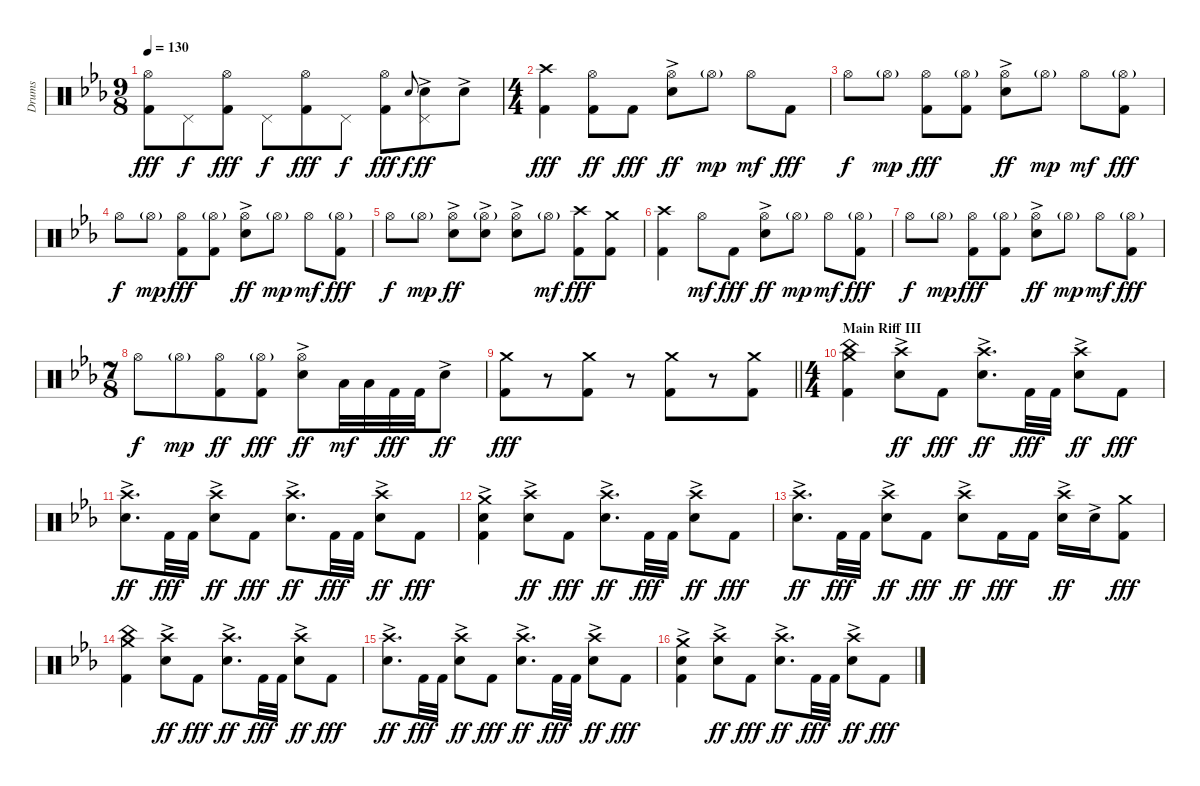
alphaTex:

\track ("Drums" "Drums") {instrument percussion}
\staff {score}
\articulation defaults
\ts (9 8)
\tempo 130
\clef neutral
\ks cminor
("Hi-Hat (open)" "Kick (hit) 2").8{dy fff} "Pedal Hi-Hat (hit)".8{dy f} ("Hi-Hat (open)" "Kick (hit) 2").8{dy fff} "Pedal Hi-Hat (hit)".8{dy f} ("Hi-Hat (open)" "Kick (hit) 2").8{dy fff} "Pedal Hi-Hat (hit)".8{dy f} ("Hi-Hat (open)" "Kick (hit) 2").8{dy fff} "Electric Snare (hit)".8{gr onbeat dy f} ("Pedal Hi-Hat (hit)" "Electric Snare (hit)"{ac}).8{dy ff} "Electric Snare (hit)"{ac}.8 |
\ts (4 4)
("Crash high (hit)" "Kick (hit) 2").4{dy fff} ("Hi-Hat (open)" "Kick (hit) 2").8{dy ff} "Kick (hit) 2".8{dy fff} ("Hi-Hat (open)" "Electric Snare (hit)"{ac}).8{dy ff} "Hi-Hat (open)"{g}.8{dy mp} "Hi-Hat (open)".8{dy mf} "Kick (hit) 2".8{dy fff} |
"Hi-Hat (open)".8{dy f} "Hi-Hat (open)"{g}.8{dy mp} ("Hi-Hat (open)" "Kick (hit) 2").8{dy fff} ("Hi-Hat (open)"{g} "Kick (hit) 2").8 ("Hi-Hat (open)" "Electric Snare (hit)"{ac}).8{dy ff} "Hi-Hat (open)"{g}.8{dy mp} "Hi-Hat (open)".8{dy mf} ("Hi-Hat (open)"{g} "Kick (hit) 2").8{dy fff} |
"Hi-Hat (open)".8{dy f} "Hi-Hat (open)"{g}.8{dy mp} ("Hi-Hat (open)" "Kick (hit) 2").8{dy fff} ("Hi-Hat (open)"{g} "Kick (hit) 2").8 ("Hi-Hat (open)" "Electric Snare (hit)"{ac}).8{dy ff} "Hi-Hat (open)"{g}.8{dy mp} "Hi-Hat (open)".8{dy mf} ("Hi-Hat (open)"{g} "Kick (hit) 2").8{dy fff} |
"Hi-Hat (open)".8{dy f} "Hi-Hat (open)"{g}.8{dy mp} ("Hi-Hat (open)" "Electric Snare (hit)"{ac}).8{dy ff} ("Hi-Hat (open)"{g} "Electric Snare (hit)"{ac}).8 ("Hi-Hat (open)" "Electric Snare (hit)"{ac}).8 "Hi-Hat (open)"{g}.8{dy mf} ("Crash high (hit)" "Kick (hit) 2").8{dy fff} ("Crash medium (hit)" "Kick (hit) 2").8 |
("Crash high (hit)" "Kick (hit) 2").4 "Hi-Hat (open)".8{dy mf} "Kick (hit) 2".8{dy fff} ("Hi-Hat (open)" "Electric Snare (hit)"{ac}).8{dy ff} "Hi-Hat (open)"{g}.8{dy mp} "Hi-Hat (open)".8{dy mf} ("Hi-Hat (open)"{g} "Kick (hit) 2").8{dy fff} |
"Hi-Hat (open)".8{dy f} "Hi-Hat (open)"{g}.8{dy mp} ("Hi-Hat (open)" "Kick (hit) 2").8{dy fff} ("Hi-Hat (open)"{g} "Kick (hit) 2").8 ("Hi-Hat (open)" "Electric Snare (hit)"{ac}).8{dy ff} "Hi-Hat (open)"{g}.8{dy mp} "Hi-Hat (open)".8{dy mf} ("Hi-Hat (open)"{g} "Kick (hit) 2").8{dy fff} |
\ts (7 8)
"Hi-Hat (open)".8{dy f} "Hi-Hat (open)"{g}.8{dy mp} ("Hi-Hat (open)" "Kick (hit) 2").8{dy ff} ("Hi-Hat (open)"{g} "Kick (hit) 2").8{dy fff} ("Hi-Hat (open)" "Electric Snare (hit)"{ac}).8{dy ff} "Low Tom (hit)".32{dy mf} "Low Tom (hit)".32 "Kick (hit) 2".32{dy fff} "Kick (hit) 2".32 "Electric Snare (hit)"{ac}.8{dy ff} |
\barLineRight lightlight
("Crash medium (hit)" "Kick (hit) 2").8{dy fff} r.8{volume 2} ("Crash medium (hit)" "Kick (hit) 2").8{volume 16} r.8{volume 2} ("Crash medium (hit)" "Kick (hit) 2").8{volume 16} r.8{volume 2} ("Crash medium (hit)" "Kick (hit) 2").8{volume 16} |
\ts (4 4)
\section ("" "Main Riff III")
("Crash medium (hit)" "China (hit)" "Kick (hit) 2").4 ("Crash high (hit)" "Electric Snare (hit)"{ac}).8{dy ff} "Kick (hit) 2".8{dy fff} ("Crash high (hit)" "Electric Snare (hit)"{ac}).8{d dy ff} "Kick (hit) 2".32{dy fff} "Kick (hit) 2".32 ("Crash high (hit)" "Electric Snare (hit)"{ac}).8{dy ff} "Kick (hit) 2".8{dy fff} |
("Crash high (hit)" "Electric Snare (hit)"{ac}).8{d dy ff} "Kick (hit) 2".32{dy fff} "Kick (hit) 2".32 ("Crash high (hit)" "Electric Snare (hit)"{ac}).8{dy ff} "Kick (hit) 2".8{dy fff} ("Crash high (hit)" "Electric Snare (hit)"{ac}).8{d dy ff} "Kick (hit) 2".32{dy fff} "Kick (hit) 2".32 ("Crash high (hit)" "Electric Snare (hit)"{ac}).8{dy ff} "Kick (hit) 2".8{dy fff} |
("Crash medium (hit)" "Electric Snare (hit)"{ac} "Kick (hit) 2").4 ("Crash high (hit)" "Electric Snare (hit)"{ac}).8{dy ff} "Kick (hit) 2".8{dy fff} ("Crash high (hit)" "Electric Snare (hit)"{ac}).8{d dy ff} "Kick (hit) 2".32{dy fff} "Kick (hit) 2".32 ("Crash high (hit)" "Electric Snare (hit)"{ac}).8{dy ff} "Kick (hit) 2".8{dy fff} |
("Crash high (hit)" "Electric Snare (hit)"{ac}).8{d dy ff} "Kick (hit) 2".32{dy fff} "Kick (hit) 2".32 ("Crash high (hit)" "Electric Snare (hit)"{ac}).8{dy ff} "Kick (hit) 2".8{dy fff} ("Crash high (hit)" "Electric Snare (hit)"{ac}).8{dy ff} "Kick (hit) 2".16{dy fff} "Kick (hit) 2".16 ("Crash high (hit)" "Electric Snare (hit)"{ac}).16{dy ff} "Electric Snare (hit)"{ac}.16 ("Crash medium (hit)" "Kick (hit) 2").8{dy fff} |
("Crash medium (hit)" "China (hit)" "Kick (hit) 2").4 ("Crash high (hit)" "Electric Snare (hit)"{ac}).8{dy ff} "Kick (hit) 2".8{dy fff} ("Crash high (hit)" "Electric Snare (hit)"{ac}).8{d dy ff} "Kick (hit) 2".32{dy fff} "Kick (hit) 2".32 ("Crash high (hit)" "Electric Snare (hit)"{ac}).8{dy ff} "Kick (hit) 2".8{dy fff} |
("Crash high (hit)" "Electric Snare (hit)"{ac}).8{d dy ff} "Kick (hit) 2".32{dy fff} "Kick (hit) 2".32 ("Crash high (hit)" "Electric Snare (hit)"{ac}).8{dy ff} "Kick (hit) 2".8{dy fff} ("Crash high (hit)" "Electric Snare (hit)"{ac}).8{d dy ff} "Kick (hit) 2".32{dy fff} "Kick (hit) 2".32 ("Crash high (hit)" "Electric Snare (hit)"{ac}).8{dy ff} "Kick (hit) 2".8{dy fff} |
("Crash medium (hit)" "Electric Snare (hit)"{ac} "Kick (hit) 2").4 ("Crash high (hit)" "Electric Snare (hit)"{ac}).8{dy ff} "Kick (hit) 2".8{dy fff} ("Crash high (hit)" "Electric Snare (hit)"{ac}).8{d dy ff} "Kick (hit) 2".32{dy fff} "Kick (hit) 2".32 ("Crash high (hit)" "Electric Snare (hit)"{ac}).8{dy ff} "Kick (hit) 2".8{dy fff}
